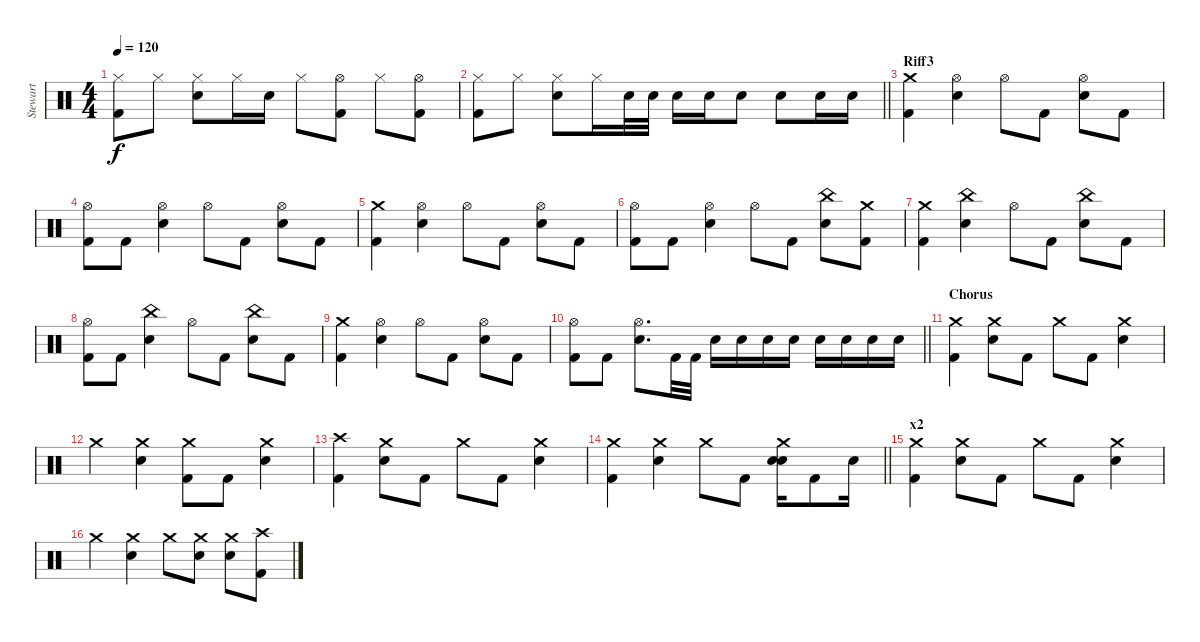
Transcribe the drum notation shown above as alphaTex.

\track ("Stewart" "Stewart") {instrument percussion}
\staff {score}
\articulation defaults
\ts (4 4)
\tempo 120
\clef neutral
\ks c
("Hi-Hat (closed)" "Kick (hit) 2").8{dy f} "Hi-Hat (closed)".8 ("Hi-Hat (closed)" "Electric Snare (hit)").8 "Hi-Hat (closed)".16 "Electric Snare (hit)".16 "Hi-Hat (closed)".8 ("Hi-Hat (open)" "Kick (hit) 2").8 "Hi-Hat (closed)".8 ("Hi-Hat (open)" "Kick (hit) 2").8 |
\barLineRight lightlight
("Hi-Hat (closed)" "Kick (hit) 2").8 "Hi-Hat (closed)".8 ("Hi-Hat (closed)" "Electric Snare (hit)").8 "Hi-Hat (closed)".16 "Electric Snare (hit)".32 "Electric Snare (hit)".32 "Electric Snare (hit)".16 "Electric Snare (hit)".16 "Electric Snare (hit)".8 "Electric Snare (hit)".8 "Electric Snare (hit)".16 "Electric Snare (hit)".16 |
\section ("" "Riff3")
("Crash medium (hit)" "Kick (hit) 2").4 ("Hi-Hat (open)" "Electric Snare (hit)").4 "Hi-Hat (open)".8 "Kick (hit) 2".8 ("Hi-Hat (open)" "Electric Snare (hit)").8 "Kick (hit) 2".8 |
("Hi-Hat (open)" "Kick (hit) 2").8 "Kick (hit) 2".8 ("Hi-Hat (open)" "Electric Snare (hit)").4 "Hi-Hat (open)".8 "Kick (hit) 2".8 ("Hi-Hat (open)" "Electric Snare (hit)").8 "Kick (hit) 2".8 |
("Crash medium (hit)" "Kick (hit) 2").4 ("Hi-Hat (open)" "Electric Snare (hit)").4 "Hi-Hat (open)".8 "Kick (hit) 2".8 ("Hi-Hat (open)" "Electric Snare (hit)").8 "Kick (hit) 2".8 |
("Hi-Hat (open)" "Kick (hit) 2").8 "Kick (hit) 2".8 ("Hi-Hat (open)" "Electric Snare (hit)").4 "Hi-Hat (open)".8 "Kick (hit) 2".8 ("China (hit)" "Electric Snare (hit)").8 ("Crash medium (hit)" "Kick (hit) 2").8 |
("Crash medium (hit)" "Kick (hit) 2").4 ("China (hit)" "Electric Snare (hit)").4 "Hi-Hat (open)".8 "Kick (hit) 2".8 ("China (hit)" "Electric Snare (hit)").8 "Kick (hit) 2".8 |
("Hi-Hat (open)" "Kick (hit) 2").8 "Kick (hit) 2".8 ("China (hit)" "Electric Snare (hit)").4 "Hi-Hat (open)".8 "Kick (hit) 2".8 ("China (hit)" "Electric Snare (hit)").8 "Kick (hit) 2".8 |
("Crash medium (hit)" "Kick (hit) 2").4 ("Hi-Hat (open)" "Electric Snare (hit)").4 "Hi-Hat (open)".8 "Kick (hit) 2".8 ("Hi-Hat (open)" "Electric Snare (hit)").8 "Kick (hit) 2".8 |
\barLineRight lightlight
("Hi-Hat (open)" "Kick (hit) 2").8 "Kick (hit) 2".8 ("Hi-Hat (open)" "Electric Snare (hit)").8{d} "Kick (hit) 2".32 "Kick (hit) 2".32 "Electric Snare (hit)".16 "Electric Snare (hit)".16 "Electric Snare (hit)".16 "Electric Snare (hit)".16 "Electric Snare (hit)".16 "Electric Snare (hit)".16 "Electric Snare (hit)".16 "Electric Snare (hit)".16 |
\section ("" "Chorus")
("Crash medium (hit)" "Kick (hit) 2").4 ("Crash medium (hit)" "Electric Snare (hit)").8 "Kick (hit) 2".8 "Crash medium (hit)".8 "Kick (hit) 2".8 ("Crash medium (hit)" "Electric Snare (hit)").4 |
"Crash medium (hit)".4 ("Crash medium (hit)" "Electric Snare (hit)").4 ("Crash medium (hit)" "Kick (hit) 2").8 "Kick (hit) 2".8 ("Crash medium (hit)" "Electric Snare (hit)").4 |
("Crash high (hit)" "Kick (hit) 2").4 ("Crash medium (hit)" "Electric Snare (hit)").8 "Kick (hit) 2".8 "Crash medium (hit)".8 "Kick (hit) 2".8 ("Crash medium (hit)" "Electric Snare (hit)").4 |
\barLineRight lightlight
("Crash medium (hit)" "Kick (hit) 2").4 ("Crash medium (hit)" "Electric Snare (hit)").4 "Crash medium (hit)".8 "Kick (hit) 2".8 ("Crash medium (hit)" "Electric Snare (hit)" "Electric Snare (hit)").16 "Kick (hit) 2".8 "Electric Snare (hit)".16 |
\section ("" "x2")
("Crash medium (hit)" "Kick (hit) 2").4 ("Crash medium (hit)" "Electric Snare (hit)").8 "Kick (hit) 2".8 "Crash medium (hit)".8 "Kick (hit) 2".8 ("Crash medium (hit)" "Electric Snare (hit)").4 |
"Crash medium (hit)".4 ("Crash medium (hit)" "Electric Snare (hit)").4 "Crash medium (hit)".8 ("Crash medium (hit)" "Electric Snare (hit)").8 ("Crash medium (hit)" "Electric Snare (hit)").8 ("Crash high (hit)" "Kick (hit) 2").8
